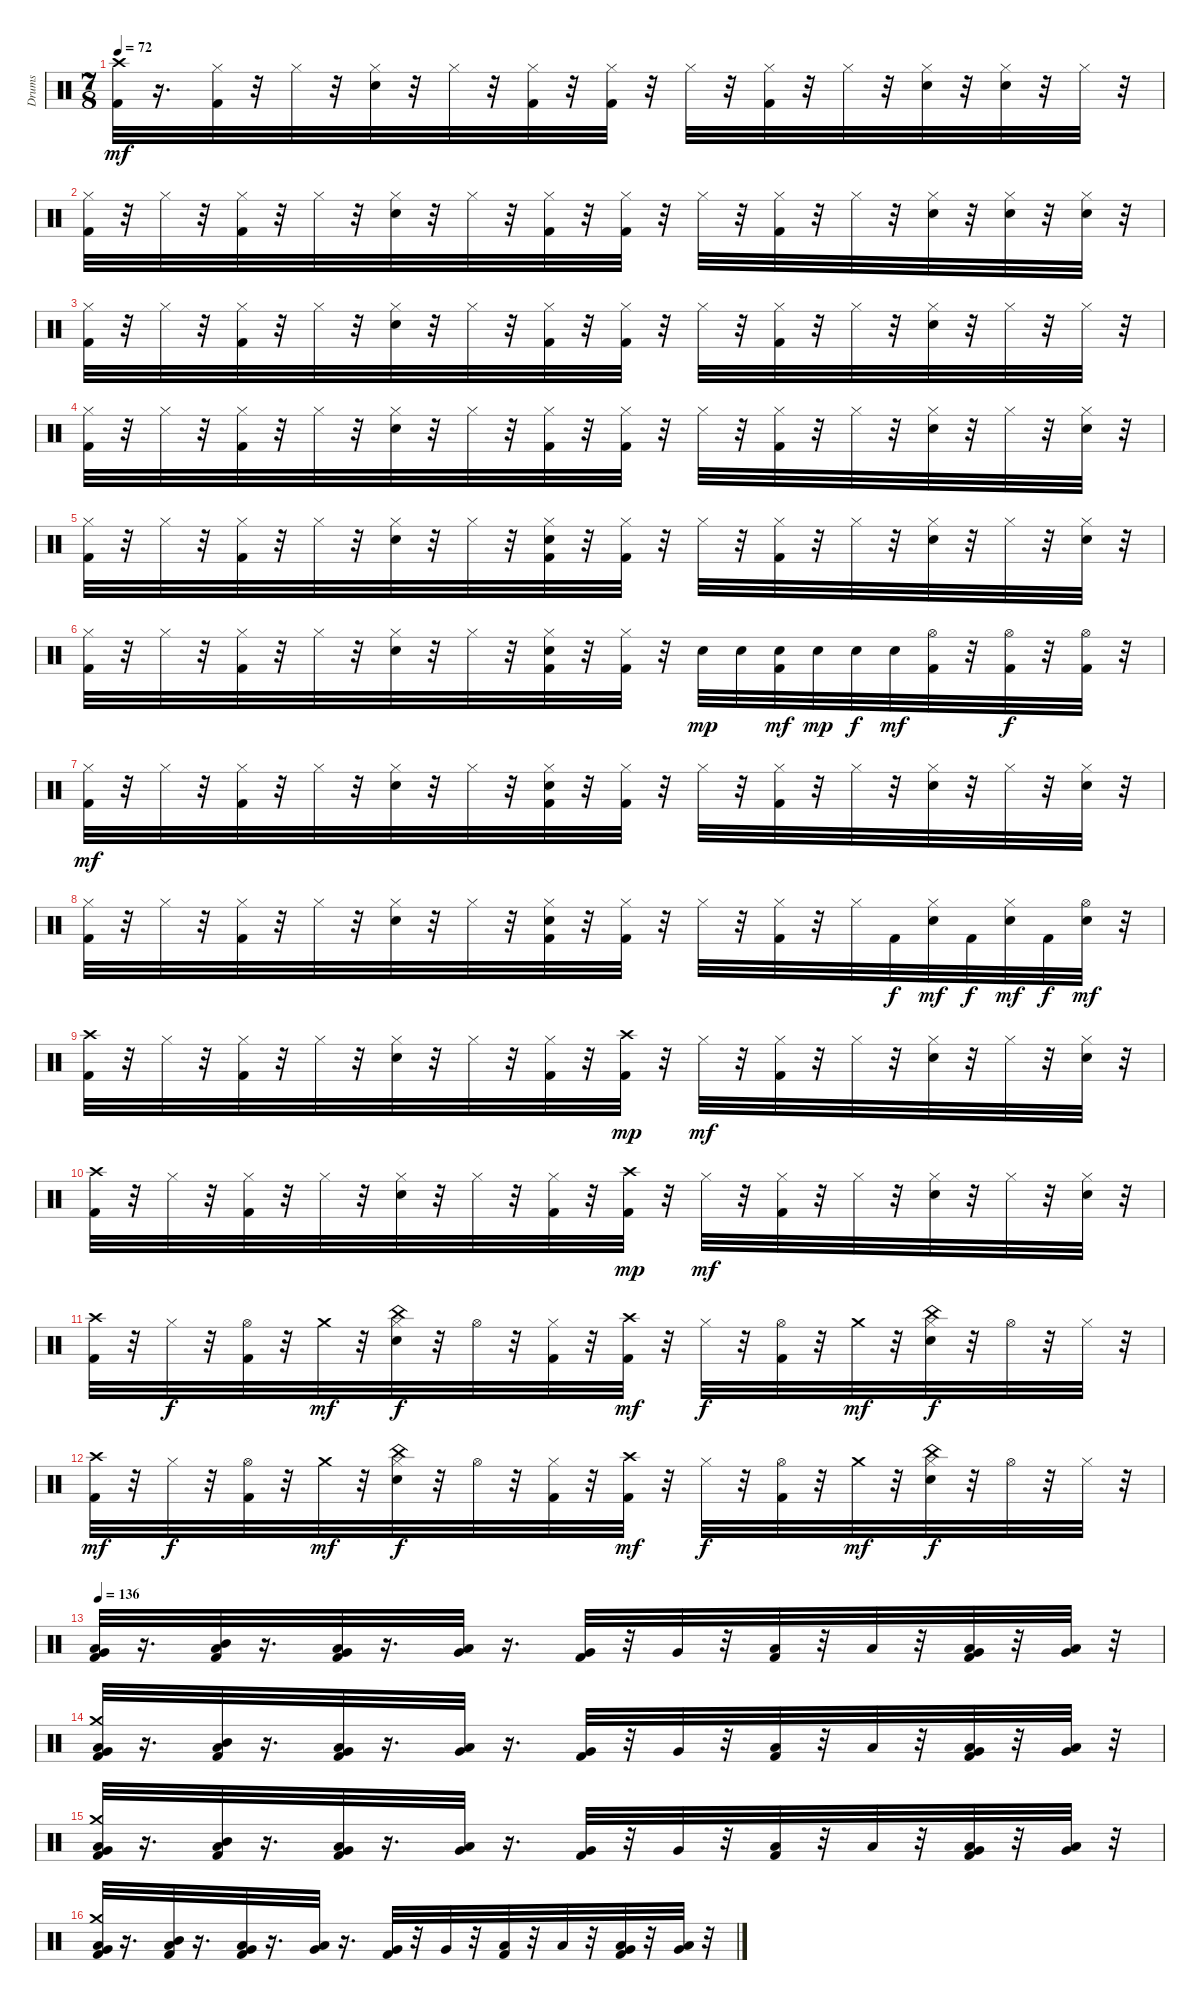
\track ("Drums" "Drums") {instrument percussion}
\staff {score}
\articulation defaults
\ts (7 8)
\tempo 72
\clef neutral
\ks c
("Crash high (hit)" "Kick (hit) 2").32{dy mf} r.16{d} ("Hi-Hat (closed)" "Kick (hit) 2").32 r.32 "Hi-Hat (closed)".32 r.32 ("Electric Snare (hit)" "Hi-Hat (closed)").32 r.32 "Hi-Hat (closed)".32 r.32 ("Hi-Hat (closed)" "Kick (hit) 2").32 r.32 ("Hi-Hat (closed)" "Kick (hit) 2").32 r.32 "Hi-Hat (closed)".32 r.32 ("Hi-Hat (closed)" "Kick (hit) 2").32 r.32 "Hi-Hat (closed)".32 r.32 ("Electric Snare (hit)" "Hi-Hat (closed)").32 r.32 ("Electric Snare (hit)" "Hi-Hat (closed)").32 r.32 "Hi-Hat (closed)".32 r.32 |
("Hi-Hat (closed)" "Kick (hit) 2").32 r.32 "Hi-Hat (closed)".32 r.32 ("Hi-Hat (closed)" "Kick (hit) 2").32 r.32 "Hi-Hat (closed)".32 r.32 ("Electric Snare (hit)" "Hi-Hat (closed)").32 r.32 "Hi-Hat (closed)".32 r.32 ("Hi-Hat (closed)" "Kick (hit) 2").32 r.32 ("Hi-Hat (closed)" "Kick (hit) 2").32 r.32 "Hi-Hat (closed)".32 r.32 ("Hi-Hat (closed)" "Kick (hit) 2").32 r.32 "Hi-Hat (closed)".32 r.32 ("Electric Snare (hit)" "Hi-Hat (closed)").32 r.32 ("Electric Snare (hit)" "Hi-Hat (closed)").32 r.32 ("Electric Snare (hit)" "Hi-Hat (closed)").32 r.32 |
("Hi-Hat (closed)" "Kick (hit) 2").32 r.32 "Hi-Hat (closed)".32 r.32 ("Hi-Hat (closed)" "Kick (hit) 2").32 r.32 "Hi-Hat (closed)".32 r.32 ("Electric Snare (hit)" "Hi-Hat (closed)").32 r.32 "Hi-Hat (closed)".32 r.32 ("Hi-Hat (closed)" "Kick (hit) 2").32 r.32 ("Hi-Hat (closed)" "Kick (hit) 2").32 r.32 "Hi-Hat (closed)".32 r.32 ("Hi-Hat (closed)" "Kick (hit) 2").32 r.32 "Hi-Hat (closed)".32 r.32 ("Electric Snare (hit)" "Hi-Hat (closed)").32 r.32 "Hi-Hat (closed)".32 r.32 "Hi-Hat (closed)".32 r.32 |
("Hi-Hat (closed)" "Kick (hit) 2").32 r.32 "Hi-Hat (closed)".32 r.32 ("Hi-Hat (closed)" "Kick (hit) 2").32 r.32 "Hi-Hat (closed)".32 r.32 ("Electric Snare (hit)" "Hi-Hat (closed)").32 r.32 "Hi-Hat (closed)".32 r.32 ("Hi-Hat (closed)" "Kick (hit) 2").32 r.32 ("Hi-Hat (closed)" "Kick (hit) 2").32 r.32 "Hi-Hat (closed)".32 r.32 ("Hi-Hat (closed)" "Kick (hit) 2").32 r.32 "Hi-Hat (closed)".32 r.32 ("Electric Snare (hit)" "Hi-Hat (closed)").32 r.32 "Hi-Hat (closed)".32 r.32 ("Electric Snare (hit)" "Hi-Hat (closed)").32 r.32 |
("Hi-Hat (closed)" "Kick (hit) 2").32 r.32 "Hi-Hat (closed)".32 r.32 ("Hi-Hat (closed)" "Kick (hit) 2").32 r.32 "Hi-Hat (closed)".32 r.32 ("Electric Snare (hit)" "Hi-Hat (closed)").32 r.32 "Hi-Hat (closed)".32 r.32 ("Electric Snare (hit)" "Hi-Hat (closed)" "Kick (hit) 2").32 r.32 ("Hi-Hat (closed)" "Kick (hit) 2").32 r.32 "Hi-Hat (closed)".32 r.32 ("Hi-Hat (closed)" "Kick (hit) 2").32 r.32 "Hi-Hat (closed)".32 r.32 ("Electric Snare (hit)" "Hi-Hat (closed)").32 r.32 "Hi-Hat (closed)".32 r.32 ("Electric Snare (hit)" "Hi-Hat (closed)").32 r.32 |
("Hi-Hat (closed)" "Kick (hit) 2").32 r.32 "Hi-Hat (closed)".32 r.32 ("Hi-Hat (closed)" "Kick (hit) 2").32 r.32 "Hi-Hat (closed)".32 r.32 ("Electric Snare (hit)" "Hi-Hat (closed)").32 r.32 "Hi-Hat (closed)".32 r.32 ("Electric Snare (hit)" "Hi-Hat (closed)" "Kick (hit) 2").32 r.32 ("Hi-Hat (closed)" "Kick (hit) 2").32 r.32 "Electric Snare (hit)".32{dy mp} "Electric Snare (hit)".32 ("Electric Snare (hit)" "Kick (hit) 2").32{dy mf} "Electric Snare (hit)".32{dy mp} "Electric Snare (hit)".32{dy f} "Electric Snare (hit)".32{dy mf} ("Hi-Hat (open)" "Kick (hit) 2").32 r.32 ("Hi-Hat (open)" "Kick (hit) 2").32{dy f} r.32 ("Hi-Hat (open)" "Kick (hit) 2").32 r.32 |
("Hi-Hat (closed)" "Kick (hit) 2").32{dy mf} r.32 "Hi-Hat (closed)".32 r.32 ("Hi-Hat (closed)" "Kick (hit) 2").32 r.32 "Hi-Hat (closed)".32 r.32 ("Electric Snare (hit)" "Hi-Hat (closed)").32 r.32 "Hi-Hat (closed)".32 r.32 ("Electric Snare (hit)" "Hi-Hat (closed)" "Kick (hit) 2").32 r.32 ("Hi-Hat (closed)" "Kick (hit) 2").32 r.32 "Hi-Hat (closed)".32 r.32 ("Hi-Hat (closed)" "Kick (hit) 2").32 r.32 "Hi-Hat (closed)".32 r.32 ("Electric Snare (hit)" "Hi-Hat (closed)").32 r.32 "Hi-Hat (closed)".32 r.32 ("Electric Snare (hit)" "Hi-Hat (closed)").32 r.32 |
("Hi-Hat (closed)" "Kick (hit) 2").32 r.32 "Hi-Hat (closed)".32 r.32 ("Hi-Hat (closed)" "Kick (hit) 2").32 r.32 "Hi-Hat (closed)".32 r.32 ("Electric Snare (hit)" "Hi-Hat (closed)").32 r.32 "Hi-Hat (closed)".32 r.32 ("Electric Snare (hit)" "Hi-Hat (closed)" "Kick (hit) 2").32 r.32 ("Hi-Hat (closed)" "Kick (hit) 2").32 r.32 "Hi-Hat (closed)".32 r.32 ("Hi-Hat (closed)" "Kick (hit) 2").32 r.32 "Hi-Hat (closed)".32 "Kick (hit) 2".32{dy f} ("Electric Snare (hit)" "Hi-Hat (closed)").32{dy mf} "Kick (hit) 2".32{dy f} ("Electric Snare (hit)" "Hi-Hat (closed)").32{dy mf} "Kick (hit) 2".32{dy f} ("Electric Snare (hit)" "Hi-Hat (open)").32{dy mf} r.32 |
("Crash high (hit)" "Kick (hit) 2").32 r.32 "Hi-Hat (closed)".32 r.32 ("Hi-Hat (closed)" "Kick (hit) 2").32 r.32 "Hi-Hat (closed)".32 r.32 ("Electric Snare (hit)" "Hi-Hat (closed)").32 r.32 "Hi-Hat (closed)".32 r.32 ("Hi-Hat (closed)" "Kick (hit) 2").32 r.32 ("Crash high (hit)" "Kick (hit) 2").32{dy mp} r.32 "Hi-Hat (closed)".32{dy mf} r.32 ("Hi-Hat (closed)" "Kick (hit) 2").32 r.32 "Hi-Hat (closed)".32 r.32 ("Electric Snare (hit)" "Hi-Hat (closed)").32 r.32 "Hi-Hat (closed)".32 r.32 ("Electric Snare (hit)" "Hi-Hat (closed)").32 r.32 |
("Crash high (hit)" "Kick (hit) 2").32 r.32 "Hi-Hat (closed)".32 r.32 ("Hi-Hat (closed)" "Kick (hit) 2").32 r.32 "Hi-Hat (closed)".32 r.32 ("Electric Snare (hit)" "Hi-Hat (closed)").32 r.32 "Hi-Hat (closed)".32 r.32 ("Hi-Hat (closed)" "Kick (hit) 2").32 r.32 ("Crash high (hit)" "Kick (hit) 2").32{dy mp} r.32 "Hi-Hat (closed)".32{dy mf} r.32 ("Hi-Hat (closed)" "Kick (hit) 2").32 r.32 "Hi-Hat (closed)".32 r.32 ("Electric Snare (hit)" "Hi-Hat (closed)").32 r.32 "Hi-Hat (closed)".32 r.32 ("Electric Snare (hit)" "Hi-Hat (closed)").32 r.32 |
("Crash high (hit)" "Kick (hit) 2").32 r.32 "Hi-Hat (closed)".32{dy f} r.32 ("Hi-Hat (open)" "Kick (hit) 2").32 r.32 "Crash medium (hit)".32{dy mf} r.32 ("China (hit)" "Electric Snare (hit)" "Hi-Hat (closed)").32{dy f} r.32 "Hi-Hat (open)".32 r.32 ("Hi-Hat (closed)" "Kick (hit) 2").32 r.32 ("Crash high (hit)" "Kick (hit) 2").32{dy mf} r.32 "Hi-Hat (closed)".32{dy f} r.32 ("Hi-Hat (open)" "Kick (hit) 2").32 r.32 "Crash medium (hit)".32{dy mf} r.32 ("China (hit)" "Electric Snare (hit)" "Hi-Hat (closed)").32{dy f} r.32 "Hi-Hat (open)".32 r.32 "Hi-Hat (closed)".32 r.32 |
("Crash high (hit)" "Kick (hit) 2").32{dy mf} r.32 "Hi-Hat (closed)".32{dy f} r.32 ("Hi-Hat (open)" "Kick (hit) 2").32 r.32 "Crash medium (hit)".32{dy mf} r.32 ("China (hit)" "Electric Snare (hit)" "Hi-Hat (closed)").32{dy f} r.32 "Hi-Hat (open)".32 r.32 ("Hi-Hat (closed)" "Kick (hit) 2").32 r.32 ("Crash high (hit)" "Kick (hit) 2").32{dy mf} r.32 "Hi-Hat (closed)".32{dy f} r.32 ("Hi-Hat (open)" "Kick (hit) 2").32 r.32 "Crash medium (hit)".32{dy mf} r.32 ("China (hit)" "Electric Snare (hit)" "Hi-Hat (closed)").32{dy f} r.32 "Hi-Hat (open)".32 r.32 "Hi-Hat (closed)".32 r.32 |
\tempo 136
("Very Low Tom (hit)" "Low Tom (hit)" "Kick (hit) 2").32 r.16{d} ("Low Tom (hit)" "Mid Tom (hit)" "Kick (hit) 2").32 r.16{d} ("Very Low Tom (hit)" "Low Tom (hit)" "Kick (hit) 2").32 r.16{d} ("Low Floor Tom (hit)" "Very Low Tom (hit)").32 r.16{d} ("Very Low Tom (hit)" "Kick (hit) 2").32 r.32 "Very Low Tom (hit)".32 r.32 ("Low Tom (hit)" "Kick (hit) 2").32 r.32 "Low Tom (hit)".32 r.32 ("Very Low Tom (hit)" "Low Floor Tom (hit)" "Kick (hit) 2").32 r.32 ("Low Floor Tom (hit)" "Very Low Tom (hit)").32 r.32 |
("Crash medium (hit)" "Very Low Tom (hit)" "Low Tom (hit)" "Kick (hit) 2").32 r.16{d} ("Low Tom (hit)" "Mid Tom (hit)" "Kick (hit) 2").32 r.16{d} ("Very Low Tom (hit)" "Low Tom (hit)" "Kick (hit) 2").32 r.16{d} ("Very Low Tom (hit)" "Low Floor Tom (hit)").32 r.16{d} ("Very Low Tom (hit)" "Kick (hit) 2").32 r.32 "Very Low Tom (hit)".32 r.32 ("Low Tom (hit)" "Kick (hit) 2").32 r.32 "Low Tom (hit)".32 r.32 ("Very Low Tom (hit)" "Low Floor Tom (hit)" "Kick (hit) 2").32 r.32 ("Very Low Tom (hit)" "Low Floor Tom (hit)").32 r.32 |
("Crash medium (hit)" "Very Low Tom (hit)" "Low Tom (hit)" "Kick (hit) 2").32 r.16{d} ("Low Tom (hit)" "Mid Tom (hit)" "Kick (hit) 2").32 r.16{d} ("Very Low Tom (hit)" "Low Tom (hit)" "Kick (hit) 2").32 r.16{d} ("Low Floor Tom (hit)" "Very Low Tom (hit)").32 r.16{d} ("Very Low Tom (hit)" "Kick (hit) 2").32 r.32 "Very Low Tom (hit)".32 r.32 ("Low Tom (hit)" "Kick (hit) 2").32 r.32 "Low Tom (hit)".32 r.32 ("Very Low Tom (hit)" "Low Floor Tom (hit)" "Kick (hit) 2").32 r.32 ("Very Low Tom (hit)" "Low Floor Tom (hit)").32 r.32 |
("Crash medium (hit)" "Very Low Tom (hit)" "Low Tom (hit)" "Kick (hit) 2").32 r.16{d} ("Low Tom (hit)" "Mid Tom (hit)" "Kick (hit) 2").32 r.16{d} ("Very Low Tom (hit)" "Low Tom (hit)" "Kick (hit) 2").32 r.16{d} ("Very Low Tom (hit)" "Low Floor Tom (hit)").32 r.16{d} ("Very Low Tom (hit)" "Kick (hit) 2").32 r.32 "Very Low Tom (hit)".32 r.32 ("Low Tom (hit)" "Kick (hit) 2").32 r.32 "Low Tom (hit)".32 r.32 ("Very Low Tom (hit)" "Low Floor Tom (hit)" "Kick (hit) 2").32 r.32 ("Low Floor Tom (hit)" "Very Low Tom (hit)").32 r.32
